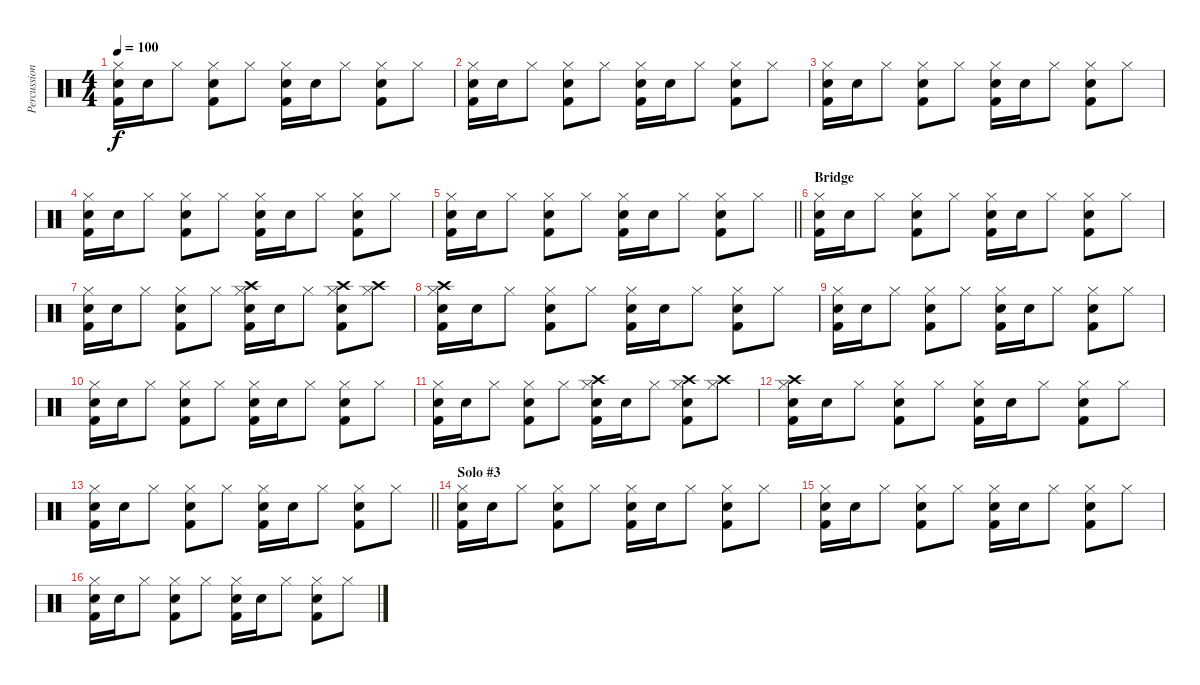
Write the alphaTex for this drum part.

\track ("Percussion" "Percussion") {instrument percussion}
\staff {score}
\articulation defaults
\ts (4 4)
\tempo 100
\clef neutral
\ks c
("Snare (hit) 2" "Hi-Hat (closed)" "Kick (hit) 2").16{dy f} "Snare (hit) 2".16 "Hi-Hat (closed)".8 ("Snare (hit) 2" "Hi-Hat (closed)" "Kick (hit) 2").8 "Hi-Hat (closed)".8 ("Snare (hit) 2" "Hi-Hat (closed)" "Kick (hit) 2").16 "Snare (hit) 2".16 "Hi-Hat (closed)".8 ("Snare (hit) 2" "Hi-Hat (closed)" "Kick (hit) 2").8 "Hi-Hat (closed)".8 |
("Snare (hit) 2" "Hi-Hat (closed)" "Kick (hit) 2").16 "Snare (hit) 2".16 "Hi-Hat (closed)".8 ("Snare (hit) 2" "Hi-Hat (closed)" "Kick (hit) 2").8 "Hi-Hat (closed)".8 ("Snare (hit) 2" "Hi-Hat (closed)" "Kick (hit) 2").16 "Snare (hit) 2".16 "Hi-Hat (closed)".8 ("Snare (hit) 2" "Hi-Hat (closed)" "Kick (hit) 2").8 "Hi-Hat (closed)".8 |
("Snare (hit) 2" "Hi-Hat (closed)" "Kick (hit) 2").16 "Snare (hit) 2".16 "Hi-Hat (closed)".8 ("Snare (hit) 2" "Hi-Hat (closed)" "Kick (hit) 2").8 "Hi-Hat (closed)".8 ("Snare (hit) 2" "Hi-Hat (closed)" "Kick (hit) 2").16 "Snare (hit) 2".16 "Hi-Hat (closed)".8 ("Snare (hit) 2" "Hi-Hat (closed)" "Kick (hit) 2").8 "Hi-Hat (closed)".8 |
("Snare (hit) 2" "Hi-Hat (closed)" "Kick (hit) 2").16 "Snare (hit) 2".16 "Hi-Hat (closed)".8 ("Snare (hit) 2" "Hi-Hat (closed)" "Kick (hit) 2").8 "Hi-Hat (closed)".8 ("Snare (hit) 2" "Hi-Hat (closed)" "Kick (hit) 2").16 "Snare (hit) 2".16 "Hi-Hat (closed)".8 ("Snare (hit) 2" "Hi-Hat (closed)" "Kick (hit) 2").8 "Hi-Hat (closed)".8 |
\barLineRight lightlight
("Snare (hit) 2" "Hi-Hat (closed)" "Kick (hit) 2").16 "Snare (hit) 2".16 "Hi-Hat (closed)".8 ("Snare (hit) 2" "Hi-Hat (closed)" "Kick (hit) 2").8 "Hi-Hat (closed)".8 ("Snare (hit) 2" "Hi-Hat (closed)" "Kick (hit) 2").16 "Snare (hit) 2".16 "Hi-Hat (closed)".8 ("Snare (hit) 2" "Hi-Hat (closed)" "Kick (hit) 2").8 "Hi-Hat (closed)".8 |
\section ("" "Bridge")
("Snare (hit) 2" "Hi-Hat (closed)" "Kick (hit) 2").16 "Snare (hit) 2".16 "Hi-Hat (closed)".8 ("Snare (hit) 2" "Hi-Hat (closed)" "Kick (hit) 2").8 "Hi-Hat (closed)".8 ("Snare (hit) 2" "Hi-Hat (closed)" "Kick (hit) 2").16 "Snare (hit) 2".16 "Hi-Hat (closed)".8 ("Snare (hit) 2" "Hi-Hat (closed)" "Kick (hit) 2").8 "Hi-Hat (closed)".8 |
("Snare (hit) 2" "Hi-Hat (closed)" "Kick (hit) 2").16 "Snare (hit) 2".16 "Hi-Hat (closed)".8 ("Snare (hit) 2" "Hi-Hat (closed)" "Kick (hit) 2").8 "Hi-Hat (closed)".8 ("Snare (hit) 2" "Crash high (hit)" "Hi-Hat (closed)" "Kick (hit) 2").16 "Snare (hit) 2".16 "Hi-Hat (closed)".8 ("Snare (hit) 2" "Crash high (hit)" "Hi-Hat (closed)" "Kick (hit) 2").8 ("Crash high (hit)" "Hi-Hat (closed)").8 |
("Snare (hit) 2" "Crash high (hit)" "Hi-Hat (closed)" "Kick (hit) 2").16 "Snare (hit) 2".16 "Hi-Hat (closed)".8 ("Snare (hit) 2" "Hi-Hat (closed)" "Kick (hit) 2").8 "Hi-Hat (closed)".8 ("Snare (hit) 2" "Hi-Hat (closed)" "Kick (hit) 2").16 "Snare (hit) 2".16 "Hi-Hat (closed)".8 ("Snare (hit) 2" "Hi-Hat (closed)" "Kick (hit) 2").8 "Hi-Hat (closed)".8 |
("Snare (hit) 2" "Hi-Hat (closed)" "Kick (hit) 2").16 "Snare (hit) 2".16 "Hi-Hat (closed)".8 ("Snare (hit) 2" "Hi-Hat (closed)" "Kick (hit) 2").8 "Hi-Hat (closed)".8 ("Snare (hit) 2" "Hi-Hat (closed)" "Kick (hit) 2").16 "Snare (hit) 2".16 "Hi-Hat (closed)".8 ("Snare (hit) 2" "Hi-Hat (closed)" "Kick (hit) 2").8 "Hi-Hat (closed)".8 |
("Snare (hit) 2" "Hi-Hat (closed)" "Kick (hit) 2").16 "Snare (hit) 2".16 "Hi-Hat (closed)".8 ("Snare (hit) 2" "Hi-Hat (closed)" "Kick (hit) 2").8 "Hi-Hat (closed)".8 ("Snare (hit) 2" "Hi-Hat (closed)" "Kick (hit) 2").16 "Snare (hit) 2".16 "Hi-Hat (closed)".8 ("Snare (hit) 2" "Hi-Hat (closed)" "Kick (hit) 2").8 "Hi-Hat (closed)".8 |
("Snare (hit) 2" "Hi-Hat (closed)" "Kick (hit) 2").16 "Snare (hit) 2".16 "Hi-Hat (closed)".8 ("Snare (hit) 2" "Hi-Hat (closed)" "Kick (hit) 2").8 "Hi-Hat (closed)".8 ("Snare (hit) 2" "Crash high (hit)" "Hi-Hat (closed)" "Kick (hit) 2").16 "Snare (hit) 2".16 "Hi-Hat (closed)".8 ("Snare (hit) 2" "Crash high (hit)" "Hi-Hat (closed)" "Kick (hit) 2").8 ("Crash high (hit)" "Hi-Hat (closed)").8 |
("Snare (hit) 2" "Crash high (hit)" "Hi-Hat (closed)" "Kick (hit) 2").16 "Snare (hit) 2".16 "Hi-Hat (closed)".8 ("Snare (hit) 2" "Hi-Hat (closed)" "Kick (hit) 2").8 "Hi-Hat (closed)".8 ("Snare (hit) 2" "Hi-Hat (closed)" "Kick (hit) 2").16 "Snare (hit) 2".16 "Hi-Hat (closed)".8 ("Snare (hit) 2" "Hi-Hat (closed)" "Kick (hit) 2").8 "Hi-Hat (closed)".8 |
\barLineRight lightlight
("Snare (hit) 2" "Hi-Hat (closed)" "Kick (hit) 2").16 "Snare (hit) 2".16 "Hi-Hat (closed)".8 ("Snare (hit) 2" "Hi-Hat (closed)" "Kick (hit) 2").8 "Hi-Hat (closed)".8 ("Snare (hit) 2" "Hi-Hat (closed)" "Kick (hit) 2").16 "Snare (hit) 2".16 "Hi-Hat (closed)".8 ("Snare (hit) 2" "Hi-Hat (closed)" "Kick (hit) 2").8 "Hi-Hat (closed)".8 |
\section ("" "Solo #3")
("Snare (hit) 2" "Hi-Hat (closed)" "Kick (hit) 2").16 "Snare (hit) 2".16 "Hi-Hat (closed)".8 ("Snare (hit) 2" "Hi-Hat (closed)" "Kick (hit) 2").8 "Hi-Hat (closed)".8 ("Snare (hit) 2" "Hi-Hat (closed)" "Kick (hit) 2").16 "Snare (hit) 2".16 "Hi-Hat (closed)".8 ("Snare (hit) 2" "Hi-Hat (closed)" "Kick (hit) 2").8 "Hi-Hat (closed)".8 |
("Snare (hit) 2" "Hi-Hat (closed)" "Kick (hit) 2").16 "Snare (hit) 2".16 "Hi-Hat (closed)".8 ("Snare (hit) 2" "Hi-Hat (closed)" "Kick (hit) 2").8 "Hi-Hat (closed)".8 ("Snare (hit) 2" "Hi-Hat (closed)" "Kick (hit) 2").16 "Snare (hit) 2".16 "Hi-Hat (closed)".8 ("Snare (hit) 2" "Hi-Hat (closed)" "Kick (hit) 2").8 "Hi-Hat (closed)".8 |
("Snare (hit) 2" "Hi-Hat (closed)" "Kick (hit) 2").16 "Snare (hit) 2".16 "Hi-Hat (closed)".8 ("Snare (hit) 2" "Hi-Hat (closed)" "Kick (hit) 2").8 "Hi-Hat (closed)".8 ("Snare (hit) 2" "Hi-Hat (closed)" "Kick (hit) 2").16 "Snare (hit) 2".16 "Hi-Hat (closed)".8 ("Snare (hit) 2" "Hi-Hat (closed)" "Kick (hit) 2").8 "Hi-Hat (closed)".8
